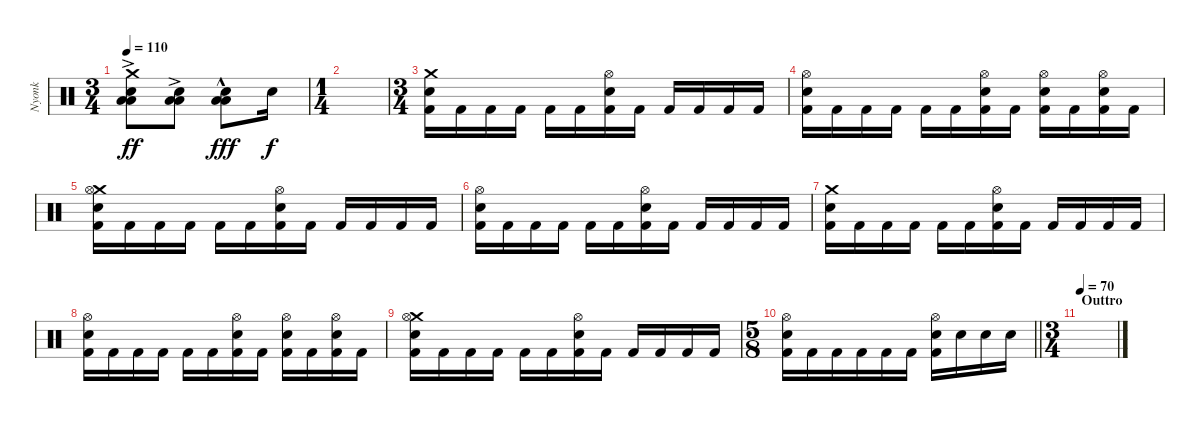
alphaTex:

\track ("Nyonk" "Nyonk") {instrument percussion}
\staff {score}
\articulation defaults
\ts (3 4)
\tempo 110
\clef neutral
\ks c
("Crash medium (hit)" "Electric Snare (hit)"{ac} "Low Floor Tom (hit)"{ac} "Low Floor Tom (hit)"{ac}).8{dy ff} ("Electric Snare (hit)"{ac} "Low Floor Tom (hit)"{ac} "Low Floor Tom (hit)"{ac}).8 ("Electric Snare (hit)"{hac} "Low Floor Tom (hit)"{hac} "Low Floor Tom (hit)"{hac}).8{dy fff} "Electric Snare (hit)".16{dy f} |
\ts (1 4)
|
\ts (3 4)
("Crash medium (hit)" "Electric Snare (hit)" "Kick (hit) 2").16 "Kick (hit) 2".16 "Kick (hit) 2".16 "Kick (hit) 2".16 "Kick (hit) 2".16 "Kick (hit) 2".16 ("Hi-Hat (open)" "Electric Snare (hit)" "Kick (hit) 2").16 "Kick (hit) 2".16 "Kick (hit) 2".16 "Kick (hit) 2".16 "Kick (hit) 2".16 "Kick (hit) 2".16 |
("Hi-Hat (open)" "Electric Snare (hit)" "Kick (hit) 2").16 "Kick (hit) 2".16 "Kick (hit) 2".16 "Kick (hit) 2".16 "Kick (hit) 2".16 "Kick (hit) 2".16 ("Hi-Hat (open)" "Electric Snare (hit)" "Kick (hit) 2").16 "Kick (hit) 2".16 ("Hi-Hat (open)" "Electric Snare (hit)" "Kick (hit) 2").16 "Kick (hit) 2".16 ("Hi-Hat (open)" "Electric Snare (hit)" "Kick (hit) 2").16 "Kick (hit) 2".16 |
("Crash medium (hit)" "Hi-Hat (open)" "Electric Snare (hit)" "Kick (hit) 2").16 "Kick (hit) 2".16 "Kick (hit) 2".16 "Kick (hit) 2".16 "Kick (hit) 2".16 "Kick (hit) 2".16 ("Hi-Hat (open)" "Electric Snare (hit)" "Kick (hit) 2").16 "Kick (hit) 2".16 "Kick (hit) 2".16 "Kick (hit) 2".16 "Kick (hit) 2".16 "Kick (hit) 2".16 |
("Hi-Hat (open)" "Electric Snare (hit)" "Kick (hit) 2").16 "Kick (hit) 2".16 "Kick (hit) 2".16 "Kick (hit) 2".16 "Kick (hit) 2".16 "Kick (hit) 2".16 ("Hi-Hat (open)" "Electric Snare (hit)" "Kick (hit) 2").16 "Kick (hit) 2".16 "Kick (hit) 2".16 "Kick (hit) 2".16 "Kick (hit) 2".16 "Kick (hit) 2".16 |
("Crash medium (hit)" "Electric Snare (hit)" "Kick (hit) 2").16 "Kick (hit) 2".16 "Kick (hit) 2".16 "Kick (hit) 2".16 "Kick (hit) 2".16 "Kick (hit) 2".16 ("Hi-Hat (open)" "Electric Snare (hit)" "Kick (hit) 2").16 "Kick (hit) 2".16 "Kick (hit) 2".16 "Kick (hit) 2".16 "Kick (hit) 2".16 "Kick (hit) 2".16 |
("Hi-Hat (open)" "Electric Snare (hit)" "Kick (hit) 2").16 "Kick (hit) 2".16 "Kick (hit) 2".16 "Kick (hit) 2".16 "Kick (hit) 2".16 "Kick (hit) 2".16 ("Hi-Hat (open)" "Electric Snare (hit)" "Kick (hit) 2").16 "Kick (hit) 2".16 ("Hi-Hat (open)" "Electric Snare (hit)" "Kick (hit) 2").16 "Kick (hit) 2".16 ("Hi-Hat (open)" "Electric Snare (hit)" "Kick (hit) 2").16 "Kick (hit) 2".16 |
("Crash medium (hit)" "Hi-Hat (open)" "Electric Snare (hit)" "Kick (hit) 2").16 "Kick (hit) 2".16 "Kick (hit) 2".16 "Kick (hit) 2".16 "Kick (hit) 2".16 "Kick (hit) 2".16 ("Hi-Hat (open)" "Electric Snare (hit)" "Kick (hit) 2").16 "Kick (hit) 2".16 "Kick (hit) 2".16 "Kick (hit) 2".16 "Kick (hit) 2".16 "Kick (hit) 2".16 |
\ts (5 8)
\barLineRight lightlight
("Hi-Hat (open)" "Electric Snare (hit)" "Kick (hit) 2").16 "Kick (hit) 2".16 "Kick (hit) 2".16 "Kick (hit) 2".16 "Kick (hit) 2".16 "Kick (hit) 2".16 ("Hi-Hat (open)" "Electric Snare (hit)" "Kick (hit) 2").16 "Electric Snare (hit)".16 "Electric Snare (hit)".16 "Electric Snare (hit)".16 |
\ts (3 4)
\section ("" "Outtro")
\tempo 70
